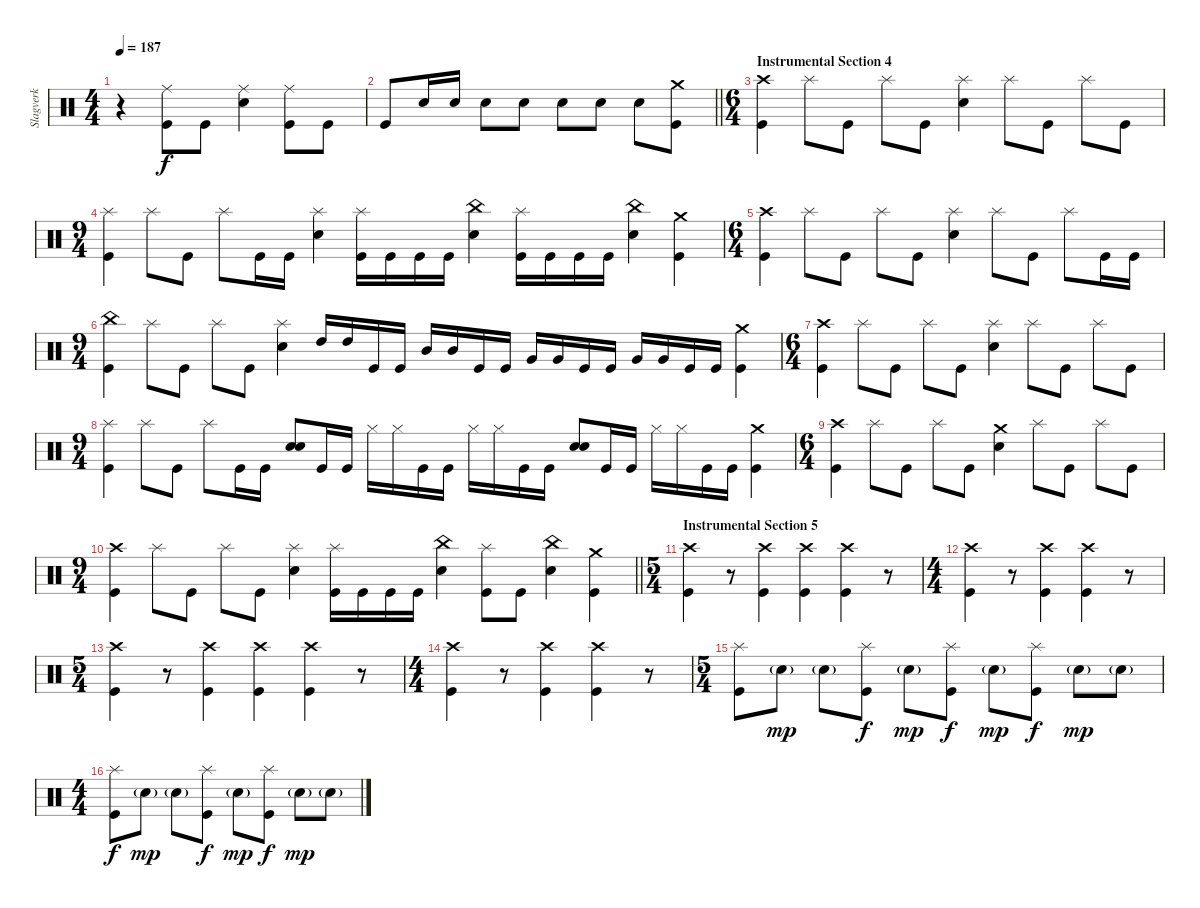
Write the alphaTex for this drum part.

\track ("Slagverk" "Slagverk") {instrument percussion}
\staff {score}
\articulation defaults
\ts (4 4)
\tempo 187
\clef neutral
\ks c
r.4{dy f} ("Ride (middle)" "Kick (hit)").8 "Kick (hit)".8 ("Ride (middle)" "Electric Snare (hit)").4 ("Ride (middle)" "Kick (hit)").8 "Kick (hit)".8 |
\barLineRight lightlight "Kick (hit)".8 "Electric Snare (hit)".16 "Electric Snare (hit)".16 "Electric Snare (hit)".8 "Electric Snare (hit)".8 "Electric Snare (hit)".8 "Electric Snare (hit)".8 "Electric Snare (hit)".8
("Crash medium (hit)" "Kick (hit)").8 |
\ts (6 4)
\section ("" "Instrumental Section 4")
("Crash high (hit)" "Kick (hit)").4 "Splash (hit)".8 "Kick (hit)".8 "Splash (hit)".8 "Kick (hit)".8 ("Splash (hit)" "Electric Snare (hit)").4 "Splash (hit)".8 "Kick (hit)".8 "Splash (hit)".8 "Kick (hit)".8 |
\ts (9 4)
("Splash (hit)" "Kick (hit)").4 "Splash (hit)".8 "Kick (hit)".8 "Splash (hit)".8 "Kick (hit)".16 "Kick (hit)".16 ("Splash (hit)" "Electric Snare (hit)").4 ("Splash (hit)" "Kick (hit)").16 "Kick (hit)".16 "Kick (hit)".16 "Kick (hit)".16 ("China (hit)" "Electric Snare (hit)").4 ("Splash (hit)" "Kick (hit)").16 "Kick (hit)".16 "Kick (hit)".16 "Kick (hit)".16 ("China (hit)" "Electric Snare (hit)").4 ("Crash medium (hit)" "Kick (hit)").4 |
\ts (6 4)
("Crash high (hit)" "Kick (hit)").4 "Splash (hit)".8 "Kick (hit)".8 "Splash (hit)".8 "Kick (hit)".8 ("Splash (hit)" "Electric Snare (hit)").4 "Splash (hit)".8 "Kick (hit)".8 "Splash (hit)".8 "Kick (hit)".16 "Kick (hit)".16 |
\ts (9 4)
("China (hit)" "Kick (hit)").4 "Splash (hit)".8 "Kick (hit)".8 "Splash (hit)".8 "Kick (hit)".8 ("Splash (hit)" "Electric Snare (hit)").4 "High Tom (hit)".16 "High Tom (hit)".16 "Kick (hit)".16 "Kick (hit)".16 "Mid Tom (hit)".16 "Mid Tom (hit)".16 "Kick (hit)".16 "Kick (hit)".16 "Very Low Tom (hit)".16 "Very Low Tom (hit)".16 "Kick (hit)".16 "Kick (hit)".16 "Very Low Tom (hit)".16 "Very Low Tom (hit)".16 "Kick (hit)".16 "Kick (hit)".16 ("Crash medium (hit)" "Kick (hit)").4 |
\ts (6 4)
("Crash high (hit)" "Kick (hit)").4 "Splash (hit)".8 "Kick (hit)".8 "Splash (hit)".8 "Kick (hit)".8 ("Splash (hit)" "Electric Snare (hit)").4 "Splash (hit)".8 "Kick (hit)".8 "Splash (hit)".8 "Kick (hit)".8 |
\ts (9 4)
("Splash (hit)" "Kick (hit)").4 "Splash (hit)".8 "Kick (hit)".8 "Splash (hit)".8 "Kick (hit)".16 "Kick (hit)".16 ("Electric Snare (hit)" "Electric Snare (hit)").8 "Kick (hit)".16 "Kick (hit)".16 "Hi-Hat (closed)".16 "Hi-Hat (closed)".16 "Kick (hit)".16 "Kick (hit)".16 "Hi-Hat (closed)".16 "Hi-Hat (closed)".16 "Kick (hit)".16 "Kick (hit)".16 ("Electric Snare (hit)" "Electric Snare (hit)").8 "Kick (hit)".16 "Kick (hit)".16 "Hi-Hat (closed)".16 "Hi-Hat (closed)".16 "Kick (hit)".16 "Kick (hit)".16 ("Crash medium (hit)" "Kick (hit)").4 |
\ts (6 4)
("Crash high (hit)" "Kick (hit)").4 "Splash (hit)".8 "Kick (hit)".8 "Splash (hit)".8 "Kick (hit)".8 ("Crash medium (hit)" "Electric Snare (hit)").4 "Splash (hit)".8 "Kick (hit)".8 "Splash (hit)".8 "Kick (hit)".8 |
\ts (9 4)
\barLineRight lightlight
("Crash high (hit)" "Kick (hit)").4 "Splash (hit)".8 "Kick (hit)".8 "Splash (hit)".8 "Kick (hit)".8 ("Splash (hit)" "Electric Snare (hit)").4 ("Splash (hit)" "Kick (hit)").16 "Kick (hit)".16 "Kick (hit)".16 "Kick (hit)".16 ("China (hit)" "Electric Snare (hit)").4 ("Splash (hit)" "Kick (hit)").8 "Kick (hit)".8 ("China (hit)" "Electric Snare (hit)").4 ("Crash medium (hit)" "Kick (hit)").4 |
\ts (5 4)
\section ("" "Instrumental Section 5")
("Crash high (hit)" "Kick (hit)").4 r.8 ("Crash high (hit)" "Kick (hit)").4 ("Crash high (hit)" "Kick (hit)").4 ("Crash high (hit)" "Kick (hit)").4 r.8 |
\ts (4 4)
("Crash high (hit)" "Kick (hit)").4 r.8 ("Crash high (hit)" "Kick (hit)").4 ("Crash high (hit)" "Kick (hit)").4 r.8 |
\ts (5 4)
("Crash high (hit)" "Kick (hit)").4 r.8 ("Crash high (hit)" "Kick (hit)").4 ("Crash high (hit)" "Kick (hit)").4 ("Crash high (hit)" "Kick (hit)").4 r.8 |
\ts (4 4)
("Crash high (hit)" "Kick (hit)").4 r.8 ("Crash high (hit)" "Kick (hit)").4 ("Crash high (hit)" "Kick (hit)").4 r.8 |
\ts (5 4)
("Splash (hit)" "Kick (hit)").8 "Electric Snare (hit)"{g}.8{dy mp} "Electric Snare (hit)"{g}.8 ("Splash (hit)" "Kick (hit)").8{dy f} "Electric Snare (hit)"{g}.8{dy mp} ("Splash (hit)" "Kick (hit)").8{dy f} "Electric Snare (hit)"{g}.8{dy mp} ("Splash (hit)" "Kick (hit)").8{dy f} "Electric Snare (hit)"{g}.8{dy mp} "Electric Snare (hit)"{g}.8 |
\ts (4 4)
("Splash (hit)" "Kick (hit)").8{dy f} "Electric Snare (hit)"{g}.8{dy mp} "Electric Snare (hit)"{g}.8 ("Splash (hit)" "Kick (hit)").8{dy f} "Electric Snare (hit)"{g}.8{dy mp} ("Splash (hit)" "Kick (hit)").8{dy f} "Electric Snare (hit)"{g}.8{dy mp} "Electric Snare (hit)"{g}.8
